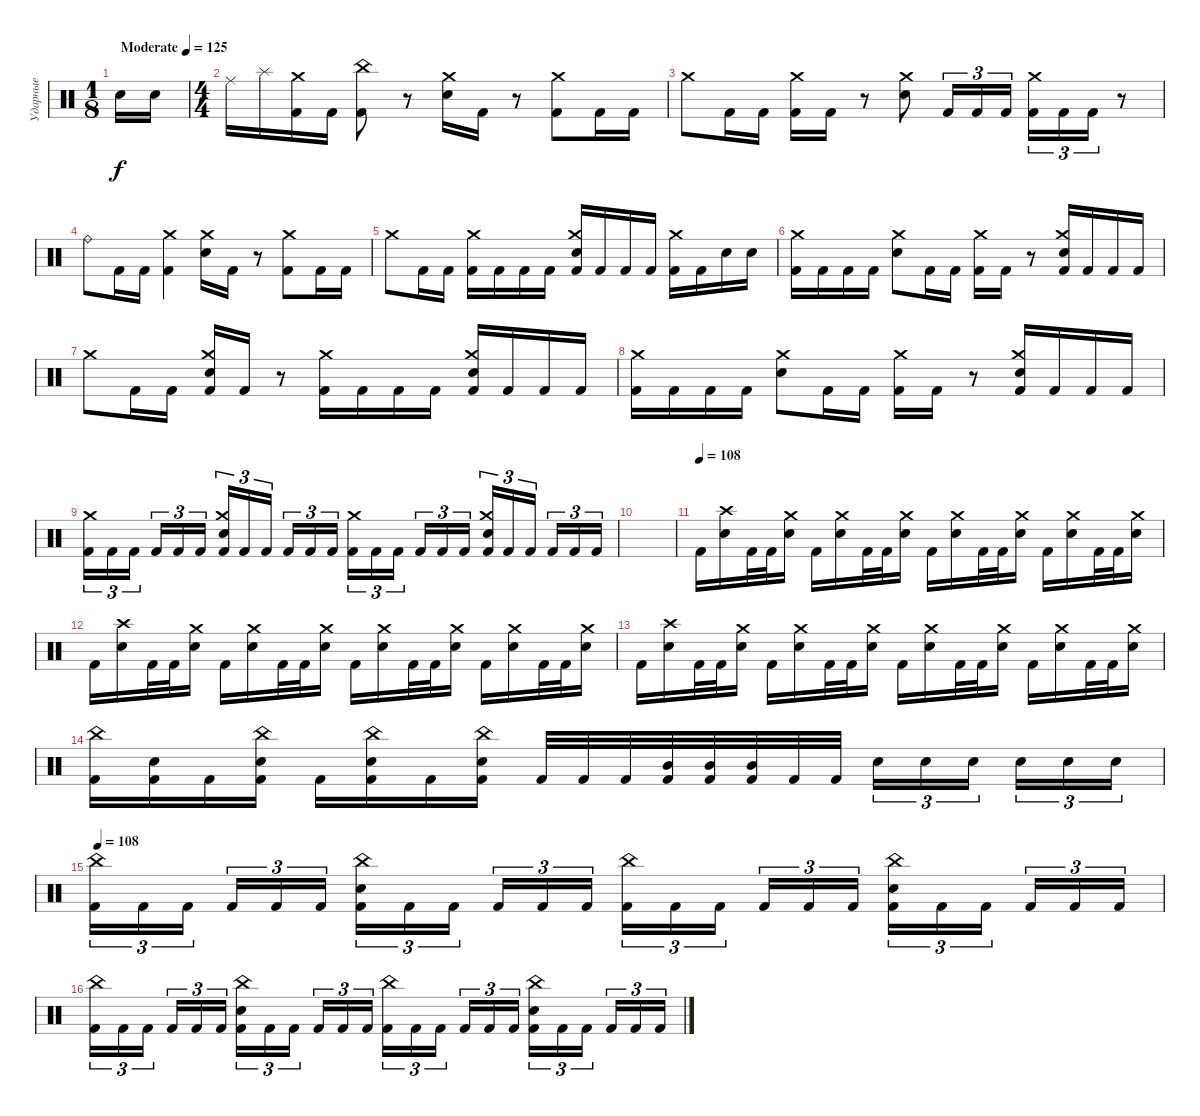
\track ("Ударные" "Ударные") {instrument percussion}
\staff {score}
\articulation defaults
\ts (1 8)
\tempo (125 "Moderate")
\clef neutral
\ks c "Electric Snare (hit)".16{dy f} "Electric Snare (hit)".16
|
\ts (4 4)
"Ride (middle)".16 "Splash (hit)".16 ("Crash medium (hit)" "Kick (hit) 2").16 "Kick (hit) 2".16 ("China (hit)" "Kick (hit) 2").8 r.8 ("Crash medium (hit)" "Electric Snare (hit)").16 "Kick (hit) 2".16 r.8 ("Crash medium (hit)" "Kick (hit) 2").8 "Kick (hit) 2".16 "Kick (hit) 2".16 |
"Crash medium (hit)".8 "Kick (hit) 2".16 "Kick (hit) 2".16 ("Crash medium (hit)" "Kick (hit) 2").16 "Kick (hit) 2".16 r.8 ("Crash medium (hit)" "Electric Snare (hit)").8 "Kick (hit) 2".16{tu (3 2)} "Kick (hit) 2".16{tu (3 2)} "Kick (hit) 2".16{tu (3 2)} ("Crash medium (hit)" "Kick (hit) 2").16{tu (3 2)} "Kick (hit) 2".16{tu (3 2)} "Kick (hit) 2".16{tu (3 2)} r.8 |
"Ride (bell)".8 "Kick (hit) 2".16 "Kick (hit) 2".16 ("Crash medium (hit)" "Kick (hit) 2").4 ("Crash medium (hit)" "Electric Snare (hit)").16 "Kick (hit) 2".16 r.8 ("Crash medium (hit)" "Kick (hit) 2").8 "Kick (hit) 2".16 "Kick (hit) 2".16 |
"Crash medium (hit)".8 "Kick (hit) 2".16 "Kick (hit) 2".16 ("Crash medium (hit)" "Kick (hit) 2").16 "Kick (hit) 2".16 "Kick (hit) 2".16 "Kick (hit) 2".16 ("Crash medium (hit)" "Electric Snare (hit)" "Kick (hit) 2").16 "Kick (hit) 2".16 "Kick (hit) 2".16 "Kick (hit) 2".16 ("Crash medium (hit)" "Kick (hit) 2").16 "Kick (hit) 2".16 "Electric Snare (hit)".16 "Electric Snare (hit)".16 |
("Crash medium (hit)" "Kick (hit) 2").16 "Kick (hit) 2".16 "Kick (hit) 2".16 "Kick (hit) 2".16 ("Crash medium (hit)" "Electric Snare (hit)").8 "Kick (hit) 2".16 "Kick (hit) 2".16 ("Crash medium (hit)" "Kick (hit) 2").16 "Kick (hit) 2".16 r.8 ("Crash medium (hit)" "Electric Snare (hit)" "Kick (hit) 2").16 "Kick (hit) 2".16 "Kick (hit) 2".16 "Kick (hit) 2".16 |
"Crash medium (hit)".8 "Kick (hit) 2".16 "Kick (hit) 2".16 ("Crash medium (hit)" "Electric Snare (hit)" "Kick (hit) 2").16 "Kick (hit) 2".16 r.8 ("Crash medium (hit)" "Kick (hit) 2").16 "Kick (hit) 2".16 "Kick (hit) 2".16 "Kick (hit) 2".16 ("Crash medium (hit)" "Electric Snare (hit)" "Kick (hit) 2").16 "Kick (hit) 2".16 "Kick (hit) 2".16 "Kick (hit) 2".16 |
("Crash medium (hit)" "Kick (hit) 2").16 "Kick (hit) 2".16 "Kick (hit) 2".16 "Kick (hit) 2".16 ("Crash medium (hit)" "Electric Snare (hit)").8 "Kick (hit) 2".16 "Kick (hit) 2".16 ("Crash medium (hit)" "Kick (hit) 2").16 "Kick (hit) 2".16 r.8 ("Crash medium (hit)" "Electric Snare (hit)" "Kick (hit) 2").16 "Kick (hit) 2".16 "Kick (hit) 2".16 "Kick (hit) 2".16 |
("Crash medium (hit)" "Kick (hit) 2").16{tu (3 2)} "Kick (hit) 2".16{tu (3 2)} "Kick (hit) 2".16{tu (3 2) beam splitsecondary} "Kick (hit) 2".16{tu (3 2)} "Kick (hit) 2".16{tu (3 2)} "Kick (hit) 2".16{tu (3 2)} ("Crash medium (hit)" "Electric Snare (hit)" "Kick (hit) 2").16{tu (3 2)} "Kick (hit) 2".16{tu (3 2)} "Kick (hit) 2".16{tu (3 2) beam splitsecondary} "Kick (hit) 2".16{tu (3 2)} "Kick (hit) 2".16{tu (3 2)} "Kick (hit) 2".16{tu (3 2)} ("Crash medium (hit)" "Kick (hit) 2").16{tu (3 2)} "Kick (hit) 2".16{tu (3 2)} "Kick (hit) 2".16{tu (3 2) beam splitsecondary} "Kick (hit) 2".16{tu (3 2)} "Kick (hit) 2".16{tu (3 2)} "Kick (hit) 2".16{tu (3 2)} ("Crash medium (hit)" "Electric Snare (hit)" "Kick (hit) 2").16{tu (3 2)} "Kick (hit) 2".16{tu (3 2)} "Kick (hit) 2".16{tu (3 2) beam splitsecondary} "Kick (hit) 2".16{tu (3 2)} "Kick (hit) 2".16{tu (3 2)} "Kick (hit) 2".16{tu (3 2)} |
|
\tempo (108)
"Kick (hit) 2".16 ("Crash high (hit)" "Electric Snare (hit)").16 "Kick (hit) 2".32 "Kick (hit) 2".32 ("Crash medium (hit)" "Electric Snare (hit)").16 "Kick (hit) 2".16 ("Crash medium (hit)" "Electric Snare (hit)").16 "Kick (hit) 2".32 "Kick (hit) 2".32 ("Crash medium (hit)" "Electric Snare (hit)").16 "Kick (hit) 2".16 ("Crash medium (hit)" "Electric Snare (hit)").16 "Kick (hit) 2".32 "Kick (hit) 2".32 ("Crash medium (hit)" "Electric Snare (hit)").16 "Kick (hit) 2".16 ("Crash medium (hit)" "Electric Snare (hit)").16 "Kick (hit) 2".32 "Kick (hit) 2".32 ("Crash medium (hit)" "Electric Snare (hit)").16 |
"Kick (hit) 2".16 ("Crash high (hit)" "Electric Snare (hit)").16 "Kick (hit) 2".32 "Kick (hit) 2".32 ("Crash medium (hit)" "Electric Snare (hit)").16 "Kick (hit) 2".16 ("Crash medium (hit)" "Electric Snare (hit)").16 "Kick (hit) 2".32 "Kick (hit) 2".32 ("Crash medium (hit)" "Electric Snare (hit)").16 "Kick (hit) 2".16 ("Crash medium (hit)" "Electric Snare (hit)").16 "Kick (hit) 2".32 "Kick (hit) 2".32 ("Crash medium (hit)" "Electric Snare (hit)").16 "Kick (hit) 2".16 ("Crash medium (hit)" "Electric Snare (hit)").16 "Kick (hit) 2".32 "Kick (hit) 2".32 ("Crash medium (hit)" "Electric Snare (hit)").16 |
"Kick (hit) 2".16 ("Crash high (hit)" "Electric Snare (hit)").16 "Kick (hit) 2".32 "Kick (hit) 2".32 ("Crash medium (hit)" "Electric Snare (hit)").16 "Kick (hit) 2".16 ("Crash medium (hit)" "Electric Snare (hit)").16 "Kick (hit) 2".32 "Kick (hit) 2".32 ("Crash medium (hit)" "Electric Snare (hit)").16 "Kick (hit) 2".16 ("Crash medium (hit)" "Electric Snare (hit)").16 "Kick (hit) 2".32 "Kick (hit) 2".32 ("Crash medium (hit)" "Electric Snare (hit)").16 "Kick (hit) 2".16 ("Crash medium (hit)" "Electric Snare (hit)").16 "Kick (hit) 2".32 "Kick (hit) 2".32 ("Crash medium (hit)" "Electric Snare (hit)").16 |
("China (hit)" "Kick (hit) 2").16 ("Electric Snare (hit)" "Kick (hit) 2").16 "Kick (hit) 2".16 ("China (hit)" "Electric Snare (hit)" "Kick (hit) 2").16 "Kick (hit) 2".16 ("China (hit)" "Electric Snare (hit)" "Kick (hit) 2").16 "Kick (hit) 2".16 ("China (hit)" "Electric Snare (hit)" "Kick (hit) 2").16 "Kick (hit) 2".32 "Kick (hit) 2".32 "Kick (hit) 2".32 ("Mid Tom (hit)" "Kick (hit) 2").32 ("Mid Tom (hit)" "Kick (hit) 2").32 ("Mid Tom (hit)" "Kick (hit) 2").32 "Kick (hit) 2".32 "Kick (hit) 2".32 "Electric Snare (hit)".16{tu (3 2)} "Electric Snare (hit)".16{tu (3 2)} "Electric Snare (hit)".16{tu (3 2) beam splitsecondary} "Electric Snare (hit)".16{tu (3 2)} "Electric Snare (hit)".16{tu (3 2)} "Electric Snare (hit)".16{tu (3 2)} |
\tempo 108
("China (hit)" "Kick (hit) 2").16{tu (3 2)} "Kick (hit) 2".16{tu (3 2)} "Kick (hit) 2".16{tu (3 2) beam splitsecondary} "Kick (hit) 2".16{tu (3 2)} "Kick (hit) 2".16{tu (3 2)} "Kick (hit) 2".16{tu (3 2)} ("China (hit)" "Electric Snare (hit)" "Kick (hit) 2").16{tu (3 2)} "Kick (hit) 2".16{tu (3 2)} "Kick (hit) 2".16{tu (3 2) beam splitsecondary} "Kick (hit) 2".16{tu (3 2)} "Kick (hit) 2".16{tu (3 2)} "Kick (hit) 2".16{tu (3 2)} ("China (hit)" "Kick (hit) 2").16{tu (3 2)} "Kick (hit) 2".16{tu (3 2)} "Kick (hit) 2".16{tu (3 2) beam splitsecondary} "Kick (hit) 2".16{tu (3 2)} "Kick (hit) 2".16{tu (3 2)} "Kick (hit) 2".16{tu (3 2)} ("China (hit)" "Electric Snare (hit)" "Kick (hit) 2").16{tu (3 2)} "Kick (hit) 2".16{tu (3 2)} "Kick (hit) 2".16{tu (3 2) beam splitsecondary} "Kick (hit) 2".16{tu (3 2)} "Kick (hit) 2".16{tu (3 2)} "Kick (hit) 2".16{tu (3 2)} |
("China (hit)" "Kick (hit) 2").16{tu (3 2)} "Kick (hit) 2".16{tu (3 2)} "Kick (hit) 2".16{tu (3 2) beam splitsecondary} "Kick (hit) 2".16{tu (3 2)} "Kick (hit) 2".16{tu (3 2)} "Kick (hit) 2".16{tu (3 2)} ("China (hit)" "Electric Snare (hit)" "Kick (hit) 2").16{tu (3 2)} "Kick (hit) 2".16{tu (3 2)} "Kick (hit) 2".16{tu (3 2) beam splitsecondary} "Kick (hit) 2".16{tu (3 2)} "Kick (hit) 2".16{tu (3 2)} "Kick (hit) 2".16{tu (3 2)} ("China (hit)" "Kick (hit) 2").16{tu (3 2)} "Kick (hit) 2".16{tu (3 2)} "Kick (hit) 2".16{tu (3 2) beam splitsecondary} "Kick (hit) 2".16{tu (3 2)} "Kick (hit) 2".16{tu (3 2)} "Kick (hit) 2".16{tu (3 2)} ("China (hit)" "Electric Snare (hit)" "Kick (hit) 2").16{tu (3 2)} "Kick (hit) 2".16{tu (3 2)} "Kick (hit) 2".16{tu (3 2) beam splitsecondary} "Kick (hit) 2".16{tu (3 2)} "Kick (hit) 2".16{tu (3 2)} "Kick (hit) 2".16{tu (3 2)}
